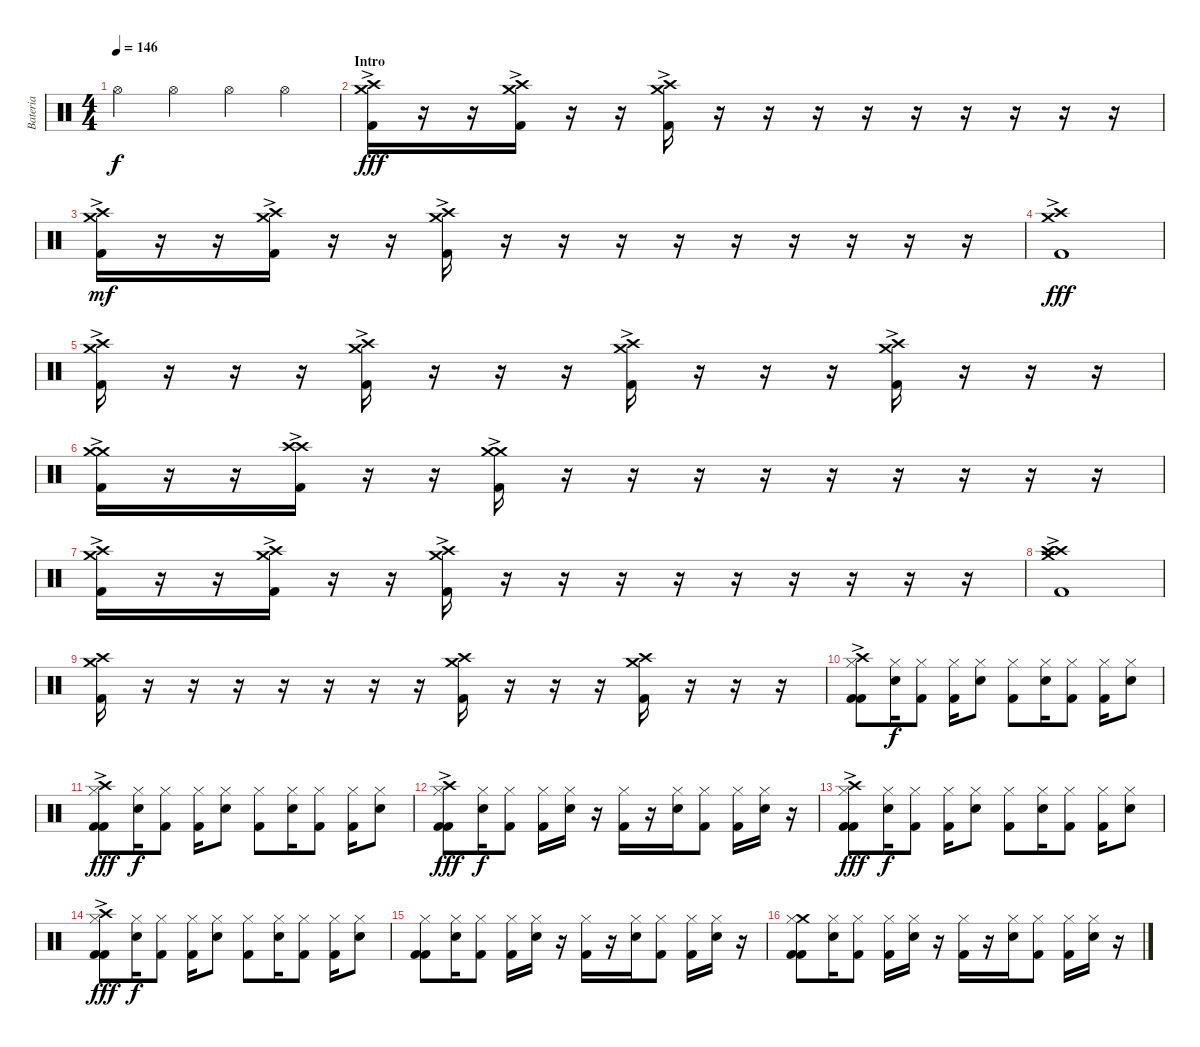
\track ("Bateria" "Bateria") {instrument percussion}
\staff {score}
\articulation defaults
\ts (4 4)
\tempo 146
\clef neutral
\ks c "Hi-Hat (open)".4{dy f} "Hi-Hat (open)".4 "Hi-Hat (open)".4 "Hi-Hat (open)".4
|
\section ("" "Intro")
("Crash high (hit)"{ac} "Crash medium (hit)" "Kick (hit) 2").16{dy fff} r.16 r.16 ("Crash medium (hit)"{ac} "Crash high (hit)" "Kick (hit) 2").16 r.16 r.16 ("Crash high (hit)"{ac} "Crash medium (hit)" "Kick (hit) 2").16 r.16 r.16 r.16 r.16 r.16 r.16 r.16 r.16 r.16 |
("Crash high (hit)"{ac} "Crash medium (hit)" "Kick (hit) 2").16{dy mf} r.16 r.16 ("Crash medium (hit)"{ac} "Crash high (hit)" "Kick (hit) 2").16 r.16 r.16 ("Crash high (hit)"{ac} "Crash medium (hit)" "Kick (hit) 2").16 r.16 r.16 r.16 r.16 r.16 r.16 r.16 r.16 r.16 |
("Crash high (hit)"{ac} "Crash medium (hit)" "Kick (hit) 2").1{dy fff} |
("Crash high (hit)"{ac} "Crash medium (hit)" "Kick (hit) 2").16 r.16 r.16 r.16 ("Crash medium (hit)" "Crash high (hit)"{ac} "Kick (hit) 2").16 r.16 r.16 r.16 ("Crash high (hit)"{ac} "Crash medium (hit)"{ac} "Kick (hit) 2").16 r.16 r.16 r.16 ("Crash medium (hit)"{ac} "Crash high (hit)"{ac} "Kick (hit) 2").16 r.16 r.16 r.16 |
("Crash medium (hit)"{ac} "Crash medium (hit)" "Kick (hit) 2").16 r.16 r.16 ("Crash high (hit)"{ac} "Crash high (hit)" "Kick (hit) 2").16 r.16 r.16 ("Crash medium (hit)"{ac} "Crash medium (hit)" "Kick (hit) 2").16 r.16 r.16 r.16 r.16 r.16 r.16 r.16 r.16 r.16 |
("Crash high (hit)"{ac} "Crash medium (hit)" "Kick (hit) 2").16 r.16 r.16 ("Crash high (hit)" "Crash medium (hit)"{ac} "Kick (hit) 2").16 r.16 r.16 ("Crash high (hit)"{ac} "Crash medium (hit)" "Kick (hit) 2").16 r.16 r.16 r.16 r.16 r.16 r.16 r.16 r.16 r.16 |
("Crash high (hit)"{ac} "Crash medium (hit)" "Crash high (hit)" "Kick (hit) 2").1 |
("Crash high (hit)" "Crash medium (hit)" "Kick (hit) 2").16 r.16 r.16 r.16 r.16 r.16 r.16 r.16 ("Crash high (hit)" "Crash medium (hit)" "Kick (hit) 2").16 r.16 r.16 r.16 ("Crash high (hit)" "Crash medium (hit)" "Kick (hit) 2").16 r.16 r.16 r.16 |
("Crash high (hit)"{ac} "Hi-Hat (closed)" "Kick (hit) 2" "Kick (hit) 2").8 ("Hi-Hat (closed)" "Electric Snare (hit)").16{dy f} ("Hi-Hat (closed)" "Kick (hit) 2").8 ("Hi-Hat (closed)" "Kick (hit) 2").16 ("Hi-Hat (closed)" "Electric Snare (hit)").8 ("Hi-Hat (closed)" "Kick (hit) 2").8 ("Hi-Hat (closed)" "Electric Snare (hit)").16 ("Hi-Hat (closed)" "Kick (hit) 2").8 ("Hi-Hat (closed)" "Kick (hit) 2").16 ("Hi-Hat (closed)" "Electric Snare (hit)").8 |
("Crash high (hit)"{ac} "Hi-Hat (closed)" "Kick (hit) 2" "Kick (hit) 2").8{dy fff} ("Hi-Hat (closed)" "Electric Snare (hit)").16{dy f} ("Hi-Hat (closed)" "Kick (hit) 2").8 ("Hi-Hat (closed)" "Kick (hit) 2").16 ("Hi-Hat (closed)" "Electric Snare (hit)").8 ("Hi-Hat (closed)" "Kick (hit) 2").8 ("Hi-Hat (closed)" "Electric Snare (hit)").16 ("Hi-Hat (closed)" "Kick (hit) 2").8 ("Hi-Hat (closed)" "Kick (hit) 2").16 ("Hi-Hat (closed)" "Electric Snare (hit)").8 |
("Crash high (hit)"{ac} "Hi-Hat (closed)" "Kick (hit) 2" "Kick (hit) 2").8{dy fff} ("Hi-Hat (closed)" "Electric Snare (hit)").16{dy f} ("Hi-Hat (closed)" "Kick (hit) 2").8 ("Hi-Hat (closed)" "Kick (hit) 2").16 ("Hi-Hat (closed)" "Electric Snare (hit)").16 r.16 ("Hi-Hat (closed)" "Kick (hit) 2").16 r.16 ("Hi-Hat (closed)" "Electric Snare (hit)").16 ("Hi-Hat (closed)" "Kick (hit) 2").8 ("Hi-Hat (closed)" "Kick (hit) 2").16 ("Hi-Hat (closed)" "Electric Snare (hit)").16 r.16 |
("Crash high (hit)"{ac} "Hi-Hat (closed)" "Kick (hit) 2" "Kick (hit) 2").8{dy fff} ("Hi-Hat (closed)" "Electric Snare (hit)").16{dy f} ("Hi-Hat (closed)" "Kick (hit) 2").8 ("Hi-Hat (closed)" "Kick (hit) 2").16 ("Hi-Hat (closed)" "Electric Snare (hit)").8 ("Hi-Hat (closed)" "Kick (hit) 2").8 ("Hi-Hat (closed)" "Electric Snare (hit)").16 ("Hi-Hat (closed)" "Kick (hit) 2").8 ("Hi-Hat (closed)" "Kick (hit) 2").16 ("Hi-Hat (closed)" "Electric Snare (hit)").8 |
("Crash high (hit)"{ac} "Hi-Hat (closed)" "Kick (hit) 2" "Kick (hit) 2").8{dy fff} ("Hi-Hat (closed)" "Electric Snare (hit)").16{dy f} ("Hi-Hat (closed)" "Kick (hit) 2").8 ("Hi-Hat (closed)" "Kick (hit) 2").16 ("Hi-Hat (closed)" "Electric Snare (hit)").8 ("Hi-Hat (closed)" "Kick (hit) 2").8 ("Hi-Hat (closed)" "Electric Snare (hit)").16 ("Hi-Hat (closed)" "Kick (hit) 2").8 ("Hi-Hat (closed)" "Kick (hit) 2").16 ("Hi-Hat (closed)" "Electric Snare (hit)").8 |
("Hi-Hat (closed)" "Kick (hit) 2" "Kick (hit) 2").8 ("Hi-Hat (closed)" "Electric Snare (hit)").16 ("Hi-Hat (closed)" "Kick (hit) 2").8 ("Hi-Hat (closed)" "Kick (hit) 2").16 ("Hi-Hat (closed)" "Electric Snare (hit)").16 r.16 ("Hi-Hat (closed)" "Kick (hit) 2").16 r.16 ("Hi-Hat (closed)" "Electric Snare (hit)").16 ("Hi-Hat (closed)" "Kick (hit) 2").8 ("Hi-Hat (closed)" "Kick (hit) 2").16 ("Hi-Hat (closed)" "Electric Snare (hit)").16 r.16 |
("Crash medium (hit)" "Hi-Hat (closed)" "Kick (hit) 2" "Kick (hit) 2").8 ("Hi-Hat (closed)" "Electric Snare (hit)").16 ("Hi-Hat (closed)" "Kick (hit) 2").8 ("Hi-Hat (closed)" "Kick (hit) 2").16 ("Hi-Hat (closed)" "Electric Snare (hit)").16 r.16 ("Hi-Hat (closed)" "Kick (hit) 2").16 r.16 ("Hi-Hat (closed)" "Electric Snare (hit)").16 ("Hi-Hat (closed)" "Kick (hit) 2").8 ("Hi-Hat (closed)" "Kick (hit) 2").16 ("Hi-Hat (closed)" "Electric Snare (hit)").16 r.16
